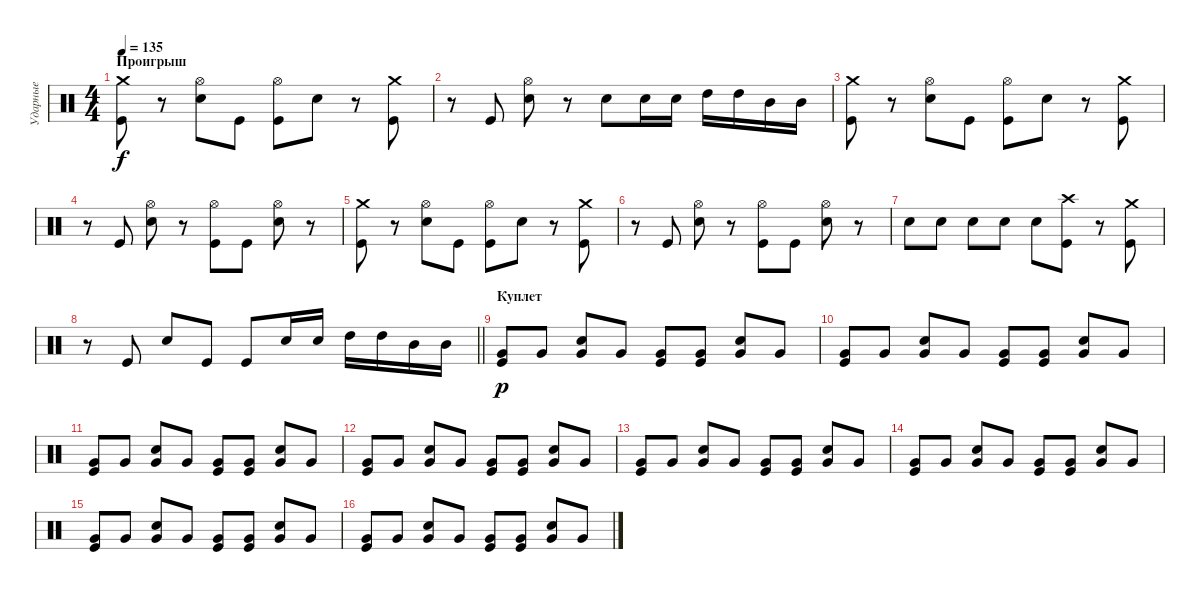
\track ("Ударные" "Ударные") {instrument percussion}
\staff {score}
\articulation defaults
\ts (4 4)
\section ("" "Проигрыш")
\tempo 135
\clef neutral
\ks c
("Crash medium (hit)" "Kick (hit)").8{dy f} r.8 ("Hi-Hat (open)" "Electric Snare (hit)").8 "Kick (hit)".8 ("Hi-Hat (open)" "Kick (hit)").8 "Electric Snare (hit)".8 r.8 ("Crash medium (hit)" "Kick (hit)").8 |
r.8 "Kick (hit)".8 ("Hi-Hat (open)" "Electric Snare (hit)").8 r.8 "Electric Snare (hit)".8 "Electric Snare (hit)".16 "Electric Snare (hit)".16 "High Tom (hit)".16 "High Tom (hit)".16 "Mid Tom (hit)".16 "Mid Tom (hit)".16 |
("Crash medium (hit)" "Kick (hit)").8 r.8 ("Hi-Hat (open)" "Electric Snare (hit)").8 "Kick (hit)".8 ("Hi-Hat (open)" "Kick (hit)").8 "Electric Snare (hit)".8 r.8 ("Crash medium (hit)" "Kick (hit)").8 |
r.8 "Kick (hit)".8 ("Hi-Hat (open)" "Electric Snare (hit)").8 r.8 ("Hi-Hat (open)" "Kick (hit)").8 "Kick (hit)".8 ("Hi-Hat (open)" "Electric Snare (hit)").8 r.8 |
("Crash medium (hit)" "Kick (hit)").8 r.8 ("Hi-Hat (open)" "Electric Snare (hit)").8 "Kick (hit)".8 ("Hi-Hat (open)" "Kick (hit)").8 "Electric Snare (hit)".8 r.8 ("Crash medium (hit)" "Kick (hit)").8 |
r.8 "Kick (hit)".8 ("Hi-Hat (open)" "Electric Snare (hit)").8 r.8 ("Hi-Hat (open)" "Kick (hit)").8 "Kick (hit)".8 ("Hi-Hat (open)" "Electric Snare (hit)").8 r.8 |
"Electric Snare (hit)".8 "Electric Snare (hit)".8 "Electric Snare (hit)".8 "Electric Snare (hit)".8 "Electric Snare (hit)".8 ("Crash high (hit)" "Kick (hit)").8 r.8 ("Crash medium (hit)" "Kick (hit)").8 |
\barLineRight lightlight
r.8 "Kick (hit)".8 "Electric Snare (hit)".8 "Kick (hit)".8 "Kick (hit)".8 "Electric Snare (hit)".16 "Electric Snare (hit)".16 "High Tom (hit)".16 "High Tom (hit)".16 "Mid Tom (hit)".16 "Mid Tom (hit)".16 |
\section ("" "Куплет")
("Kick (hit)" "Very Low Tom (hit)").8{dy p} "Very Low Tom (hit)".8 ("Electric Snare (hit)" "Very Low Tom (hit)").8 "Very Low Tom (hit)".8 ("Kick (hit)" "Very Low Tom (hit)").8 ("Kick (hit)" "Very Low Tom (hit)").8 ("Electric Snare (hit)" "Very Low Tom (hit)").8 "Very Low Tom (hit)".8 |
("Kick (hit)" "Very Low Tom (hit)").8 "Very Low Tom (hit)".8 ("Electric Snare (hit)" "Very Low Tom (hit)").8 "Very Low Tom (hit)".8 ("Kick (hit)" "Very Low Tom (hit)").8 ("Kick (hit)" "Very Low Tom (hit)").8 ("Electric Snare (hit)" "Very Low Tom (hit)").8 "Very Low Tom (hit)".8 |
("Kick (hit)" "Very Low Tom (hit)").8 "Very Low Tom (hit)".8 ("Electric Snare (hit)" "Very Low Tom (hit)").8 "Very Low Tom (hit)".8 ("Kick (hit)" "Very Low Tom (hit)").8 ("Kick (hit)" "Very Low Tom (hit)").8 ("Electric Snare (hit)" "Very Low Tom (hit)").8 "Very Low Tom (hit)".8 |
("Kick (hit)" "Very Low Tom (hit)").8 "Very Low Tom (hit)".8 ("Electric Snare (hit)" "Very Low Tom (hit)").8 "Very Low Tom (hit)".8 ("Kick (hit)" "Very Low Tom (hit)").8 ("Kick (hit)" "Very Low Tom (hit)").8 ("Electric Snare (hit)" "Very Low Tom (hit)").8 "Very Low Tom (hit)".8 |
("Kick (hit)" "Very Low Tom (hit)").8 "Very Low Tom (hit)".8 ("Electric Snare (hit)" "Very Low Tom (hit)").8 "Very Low Tom (hit)".8 ("Kick (hit)" "Very Low Tom (hit)").8 ("Kick (hit)" "Very Low Tom (hit)").8 ("Electric Snare (hit)" "Very Low Tom (hit)").8 "Very Low Tom (hit)".8 |
("Kick (hit)" "Very Low Tom (hit)").8 "Very Low Tom (hit)".8 ("Electric Snare (hit)" "Very Low Tom (hit)").8 "Very Low Tom (hit)".8 ("Kick (hit)" "Very Low Tom (hit)").8 ("Kick (hit)" "Very Low Tom (hit)").8 ("Electric Snare (hit)" "Very Low Tom (hit)").8 "Very Low Tom (hit)".8 |
("Kick (hit)" "Very Low Tom (hit)").8 "Very Low Tom (hit)".8 ("Electric Snare (hit)" "Very Low Tom (hit)").8 "Very Low Tom (hit)".8 ("Kick (hit)" "Very Low Tom (hit)").8 ("Kick (hit)" "Very Low Tom (hit)").8 ("Electric Snare (hit)" "Very Low Tom (hit)").8 "Very Low Tom (hit)".8 |
("Kick (hit)" "Very Low Tom (hit)").8 "Very Low Tom (hit)".8 ("Electric Snare (hit)" "Very Low Tom (hit)").8 "Very Low Tom (hit)".8 ("Kick (hit)" "Very Low Tom (hit)").8 ("Kick (hit)" "Very Low Tom (hit)").8 ("Electric Snare (hit)" "Very Low Tom (hit)").8 "Very Low Tom (hit)".8
